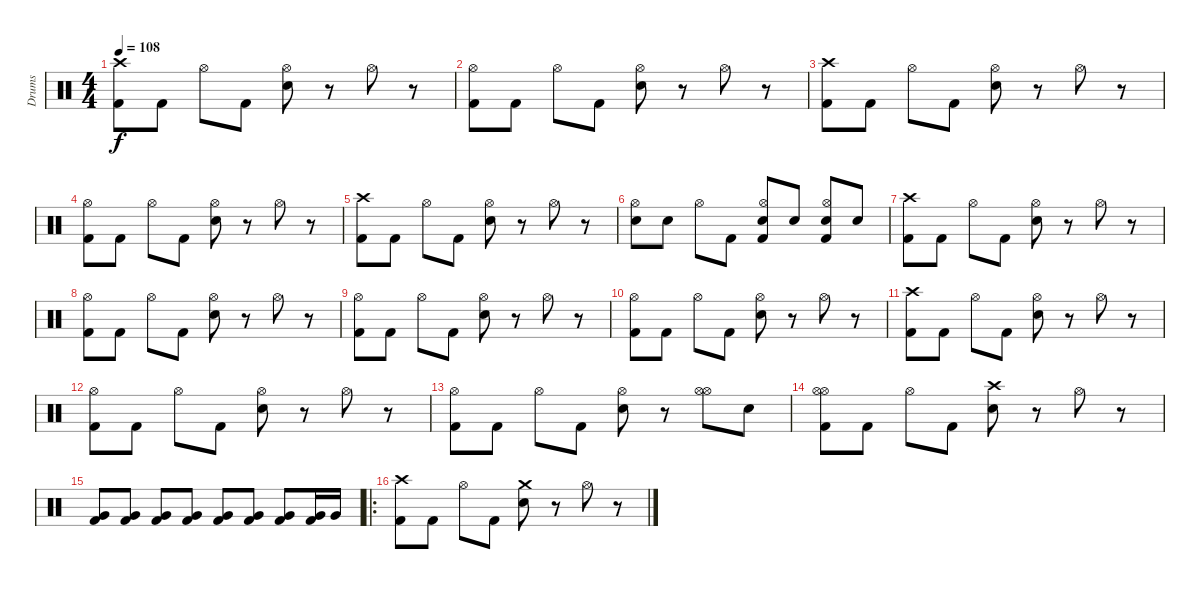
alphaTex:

\track ("Drums" "Drums") {instrument percussion}
\staff {score}
\articulation defaults
\ts (4 4)
\tempo 108
\clef neutral
\ks c
("Crash high (hit)" "Kick (hit) 2").8{dy f} "Kick (hit) 2".8 "Hi-Hat (open)".8 "Kick (hit) 2".8 ("Hi-Hat (open)" "Snare (hit) 2").8 r.8 "Hi-Hat (open)".8 r.8 |
("Hi-Hat (open)" "Kick (hit) 2").8 "Kick (hit) 2".8 "Hi-Hat (open)".8 "Kick (hit) 2".8 ("Hi-Hat (open)" "Snare (hit) 2").8 r.8 "Hi-Hat (open)".8 r.8 |
("Crash high (hit)" "Kick (hit) 2").8 "Kick (hit) 2".8 "Hi-Hat (open)".8 "Kick (hit) 2".8 ("Hi-Hat (open)" "Snare (hit) 2").8 r.8 "Hi-Hat (open)".8 r.8 |
("Hi-Hat (open)" "Kick (hit) 2").8 "Kick (hit) 2".8 "Hi-Hat (open)".8 "Kick (hit) 2".8 ("Hi-Hat (open)" "Snare (hit) 2").8 r.8 "Hi-Hat (open)".8 r.8 |
("Crash high (hit)" "Kick (hit) 2").8 "Kick (hit) 2".8 "Hi-Hat (open)".8 "Kick (hit) 2".8 ("Hi-Hat (open)" "Snare (hit) 2").8 r.8 "Hi-Hat (open)".8 r.8 |
("Hi-Hat (open)" "Snare (hit) 2").8 "Snare (hit) 2".8 "Hi-Hat (open)".8 "Kick (hit) 2".8 ("Kick (hit) 2" "Hi-Hat (open)" "Snare (hit) 2").8 "Snare (hit) 2".8 ("Kick (hit) 2" "Hi-Hat (open)" "Snare (hit) 2").8 "Snare (hit) 2".8 |
("Crash high (hit)" "Kick (hit) 2").8 "Kick (hit) 2".8 "Hi-Hat (open)".8 "Kick (hit) 2".8 ("Hi-Hat (open)" "Snare (hit) 2").8 r.8 "Hi-Hat (open)".8 r.8 |
("Hi-Hat (open)" "Kick (hit) 2").8 "Kick (hit) 2".8 "Hi-Hat (open)".8 "Kick (hit) 2".8 ("Hi-Hat (open)" "Snare (hit) 2").8 r.8 "Hi-Hat (open)".8 r.8 |
("Hi-Hat (open)" "Kick (hit) 2").8 "Kick (hit) 2".8 "Hi-Hat (open)".8 "Kick (hit) 2".8 ("Hi-Hat (open)" "Snare (hit) 2").8 r.8 "Hi-Hat (open)".8 r.8 |
("Hi-Hat (open)" "Kick (hit) 2").8 "Kick (hit) 2".8 "Hi-Hat (open)".8 "Kick (hit) 2".8 ("Hi-Hat (open)" "Snare (hit) 2").8 r.8 "Hi-Hat (open)".8 r.8 |
("Crash high (hit)" "Kick (hit) 2").8 "Kick (hit) 2".8 "Hi-Hat (open)".8 "Kick (hit) 2".8 ("Hi-Hat (open)" "Snare (hit) 2").8 r.8 "Hi-Hat (open)".8 r.8 |
("Hi-Hat (open)" "Kick (hit) 2").8 "Kick (hit) 2".8 "Hi-Hat (open)".8 "Kick (hit) 2".8 ("Hi-Hat (open)" "Snare (hit) 2").8 r.8 "Hi-Hat (open)".8 r.8 |
("Hi-Hat (open)" "Kick (hit) 2").8 "Kick (hit) 2".8 "Hi-Hat (open)".8 "Kick (hit) 2".8 ("Hi-Hat (open)" "Snare (hit) 2").8 r.8 ("Hi-Hat (open)" "Hi-Hat (open)").8 "Snare (hit) 2".8 |
("Hi-Hat (open)" "Hi-Hat (open)" "Kick (hit) 2").8 "Kick (hit) 2".8 "Hi-Hat (open)".8 "Kick (hit) 2".8 ("Crash high (hit)" "Snare (hit) 2").8 r.8 "Hi-Hat (open)".8 r.8 |
("Kick (hit) 2" "Very Low Tom (hit)").8 ("Kick (hit) 2" "Very Low Tom (hit)").8 ("Kick (hit) 2" "Very Low Tom (hit)").8 ("Kick (hit) 2" "Very Low Tom (hit)").8 ("Kick (hit) 2" "Very Low Tom (hit)").8 ("Kick (hit) 2" "Very Low Tom (hit)").8 ("Kick (hit) 2" "Very Low Tom (hit)").8 ("Kick (hit) 2" "Very Low Tom (hit)").16 "Very Low Tom (hit)".16 |
\ro
("Crash high (hit)" "Kick (hit) 2").8 "Kick (hit) 2".8 "Hi-Hat (open)".8 "Kick (hit) 2".8 ("Crash medium (hit)" "Snare (hit) 2").8 r.8 "Hi-Hat (open)".8 r.8
